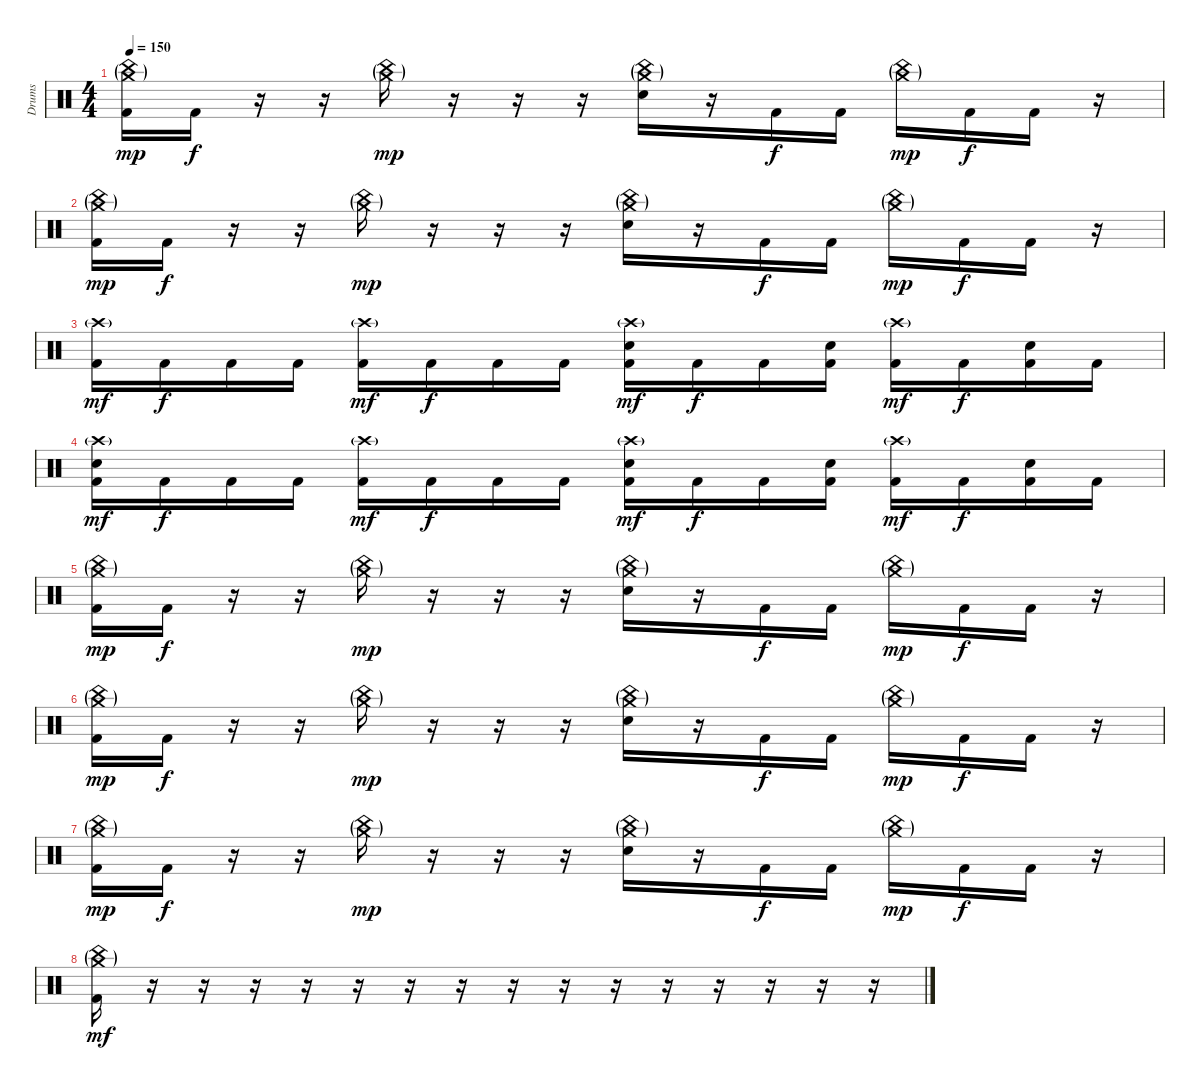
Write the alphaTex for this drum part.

\track ("Drums" "Drums") {instrument percussion}
\staff {score}
\articulation defaults
\ts (4 4)
\tempo 150
\clef neutral
\ks c
("China (hit)"{g} "Crash medium (hit)"{g} "Kick (hit) 2").16{dy mp} "Kick (hit) 2".16{dy f} r.16 r.16 ("China (hit)"{g} "Crash medium (hit)"{g}).16{dy mp} r.16 r.16 r.16 ("China (hit)"{g} "Crash medium (hit)"{g} "Electric Snare (hit)").16 r.16 "Kick (hit) 2".16{dy f} "Kick (hit) 2".16 ("China (hit)"{g} "Crash medium (hit)"{g}).16{dy mp} "Kick (hit) 2".16{dy f} "Kick (hit) 2".16 r.16 |
("China (hit)"{g} "Crash medium (hit)"{g} "Kick (hit) 2").16{dy mp} "Kick (hit) 2".16{dy f} r.16 r.16 ("China (hit)"{g} "Crash medium (hit)"{g}).16{dy mp} r.16 r.16 r.16 ("China (hit)"{g} "Crash medium (hit)"{g} "Electric Snare (hit)").16 r.16 "Kick (hit) 2".16{dy f} "Kick (hit) 2".16 ("China (hit)"{g} "Crash medium (hit)"{g}).16{dy mp} "Kick (hit) 2".16{dy f} "Kick (hit) 2".16 r.16 |
("Crash high (hit)"{g} "Kick (hit) 2").16{dy mf} "Kick (hit) 2".16{dy f} "Kick (hit) 2".16 "Kick (hit) 2".16 ("Crash high (hit)"{g} "Kick (hit) 2").16{dy mf} "Kick (hit) 2".16{dy f} "Kick (hit) 2".16 "Kick (hit) 2".16 ("Crash high (hit)"{g} "Electric Snare (hit)" "Kick (hit) 2").16{dy mf} "Kick (hit) 2".16{dy f} "Kick (hit) 2".16 ("Electric Snare (hit)" "Kick (hit) 2").16 ("Crash high (hit)"{g} "Kick (hit) 2").16{dy mf} "Kick (hit) 2".16{dy f} ("Electric Snare (hit)" "Kick (hit) 2").16 "Kick (hit) 2".16 |
("Crash high (hit)"{g} "Electric Snare (hit)" "Kick (hit) 2").16{dy mf} "Kick (hit) 2".16{dy f} "Kick (hit) 2".16 "Kick (hit) 2".16 ("Crash high (hit)"{g} "Kick (hit) 2").16{dy mf} "Kick (hit) 2".16{dy f} "Kick (hit) 2".16 "Kick (hit) 2".16 ("Crash high (hit)"{g} "Electric Snare (hit)" "Kick (hit) 2").16{dy mf} "Kick (hit) 2".16{dy f} "Kick (hit) 2".16 ("Electric Snare (hit)" "Kick (hit) 2").16 ("Crash high (hit)"{g} "Kick (hit) 2").16{dy mf} "Kick (hit) 2".16{dy f} ("Electric Snare (hit)" "Kick (hit) 2").16 "Kick (hit) 2".16 |
("China (hit)"{g} "Crash medium (hit)"{g} "Kick (hit) 2").16{dy mp} "Kick (hit) 2".16{dy f} r.16 r.16 ("China (hit)"{g} "Crash medium (hit)"{g}).16{dy mp} r.16 r.16 r.16 ("China (hit)"{g} "Crash medium (hit)"{g} "Electric Snare (hit)").16 r.16 "Kick (hit) 2".16{dy f} "Kick (hit) 2".16 ("China (hit)"{g} "Crash medium (hit)"{g}).16{dy mp} "Kick (hit) 2".16{dy f} "Kick (hit) 2".16 r.16 |
("China (hit)"{g} "Crash medium (hit)"{g} "Kick (hit) 2").16{dy mp} "Kick (hit) 2".16{dy f} r.16 r.16 ("China (hit)"{g} "Crash medium (hit)"{g}).16{dy mp} r.16 r.16 r.16 ("China (hit)"{g} "Crash medium (hit)"{g} "Electric Snare (hit)").16 r.16 "Kick (hit) 2".16{dy f} "Kick (hit) 2".16 ("China (hit)"{g} "Crash medium (hit)"{g}).16{dy mp} "Kick (hit) 2".16{dy f} "Kick (hit) 2".16 r.16 |
("China (hit)"{g} "Crash medium (hit)"{g} "Kick (hit) 2").16{dy mp} "Kick (hit) 2".16{dy f} r.16 r.16 ("China (hit)"{g} "Crash medium (hit)"{g}).16{dy mp} r.16 r.16 r.16 ("China (hit)"{g} "Crash medium (hit)"{g} "Electric Snare (hit)").16 r.16 "Kick (hit) 2".16{dy f} "Kick (hit) 2".16 ("China (hit)"{g} "Crash medium (hit)"{g}).16{dy mp} "Kick (hit) 2".16{dy f} "Kick (hit) 2".16 r.16 |
("China (hit)"{g} "Crash medium (hit)"{g} "Kick (hit) 2").16{dy mf} r.16 r.16 r.16 r.16 r.16 r.16 r.16 r.16 r.16 r.16 r.16 r.16 r.16 r.16 r.16
